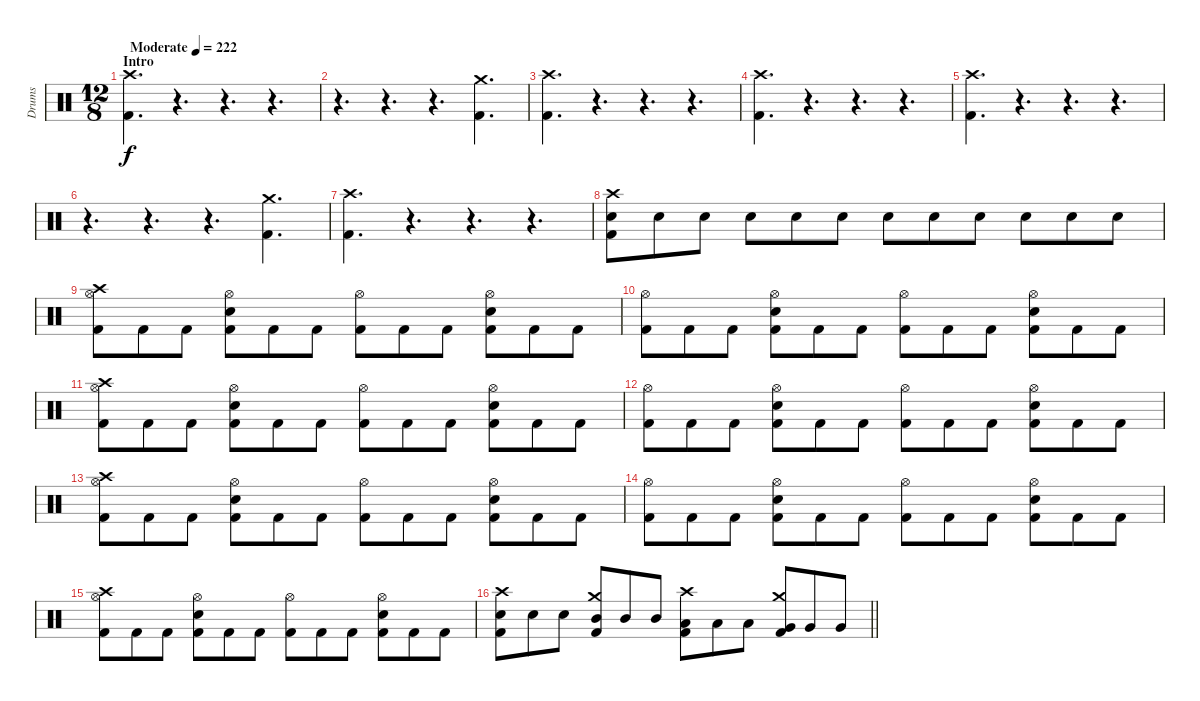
\track ("Drums" "Drums") {instrument percussion}
\staff {score}
\articulation defaults
\ts (12 8)
\section ("" "Intro")
\tempo (222 "Moderate")
\clef neutral
\ks c
("Crash high (hit)" "Kick (hit) 2").4{d dy f} r.4{d} r.4{d} r.4{d} |
r.4{d} r.4{d} r.4{d} ("Crash medium (hit)" "Kick (hit) 2").4{d} |
("Crash high (hit)" "Kick (hit) 2").4{d} r.4{d} r.4{d} r.4{d} |
("Crash high (hit)" "Kick (hit) 2").4{d} r.4{d} r.4{d} r.4{d} |
("Crash high (hit)" "Kick (hit) 2").4{d} r.4{d} r.4{d} r.4{d} |
r.4{d} r.4{d} r.4{d} ("Crash medium (hit)" "Kick (hit) 2").4{d} |
("Crash high (hit)" "Kick (hit) 2").4{d} r.4{d} r.4{d} r.4{d} |
("Crash high (hit)" "Snare (hit) 2" "Kick (hit) 2").8 "Snare (hit) 2".8 "Snare (hit) 2".8 "Snare (hit) 2".8 "Snare (hit) 2".8 "Snare (hit) 2".8 "Snare (hit) 2".8 "Snare (hit) 2".8 "Snare (hit) 2".8 "Snare (hit) 2".8 "Snare (hit) 2".8 "Snare (hit) 2".8 |
("Crash high (hit)" "Hi-Hat (open)" "Kick (hit) 2").8 "Kick (hit) 2".8 "Kick (hit) 2".8 ("Hi-Hat (open)" "Snare (hit) 2" "Kick (hit) 2").8 "Kick (hit) 2".8 "Kick (hit) 2".8 ("Hi-Hat (open)" "Kick (hit) 2").8 "Kick (hit) 2".8 "Kick (hit) 2".8 ("Hi-Hat (open)" "Snare (hit) 2" "Kick (hit) 2").8 "Kick (hit) 2".8 "Kick (hit) 2".8 |
("Hi-Hat (open)" "Kick (hit) 2").8 "Kick (hit) 2".8 "Kick (hit) 2".8 ("Hi-Hat (open)" "Snare (hit) 2" "Kick (hit) 2").8 "Kick (hit) 2".8 "Kick (hit) 2".8 ("Hi-Hat (open)" "Kick (hit) 2").8 "Kick (hit) 2".8 "Kick (hit) 2".8 ("Hi-Hat (open)" "Snare (hit) 2" "Kick (hit) 2").8 "Kick (hit) 2".8 "Kick (hit) 2".8 |
("Crash high (hit)" "Hi-Hat (open)" "Kick (hit) 2").8 "Kick (hit) 2".8 "Kick (hit) 2".8 ("Hi-Hat (open)" "Snare (hit) 2" "Kick (hit) 2").8 "Kick (hit) 2".8 "Kick (hit) 2".8 ("Hi-Hat (open)" "Kick (hit) 2").8 "Kick (hit) 2".8 "Kick (hit) 2".8 ("Hi-Hat (open)" "Snare (hit) 2" "Kick (hit) 2").8 "Kick (hit) 2".8 "Kick (hit) 2".8 |
("Hi-Hat (open)" "Kick (hit) 2").8 "Kick (hit) 2".8 "Kick (hit) 2".8 ("Hi-Hat (open)" "Snare (hit) 2" "Kick (hit) 2").8 "Kick (hit) 2".8 "Kick (hit) 2".8 ("Hi-Hat (open)" "Kick (hit) 2").8 "Kick (hit) 2".8 "Kick (hit) 2".8 ("Hi-Hat (open)" "Snare (hit) 2" "Kick (hit) 2").8 "Kick (hit) 2".8 "Kick (hit) 2".8 |
("Crash high (hit)" "Hi-Hat (open)" "Kick (hit) 2").8 "Kick (hit) 2".8 "Kick (hit) 2".8 ("Hi-Hat (open)" "Snare (hit) 2" "Kick (hit) 2").8 "Kick (hit) 2".8 "Kick (hit) 2".8 ("Hi-Hat (open)" "Kick (hit) 2").8 "Kick (hit) 2".8 "Kick (hit) 2".8 ("Hi-Hat (open)" "Snare (hit) 2" "Kick (hit) 2").8 "Kick (hit) 2".8 "Kick (hit) 2".8 |
("Hi-Hat (open)" "Kick (hit) 2").8 "Kick (hit) 2".8 "Kick (hit) 2".8 ("Hi-Hat (open)" "Snare (hit) 2" "Kick (hit) 2").8 "Kick (hit) 2".8 "Kick (hit) 2".8 ("Hi-Hat (open)" "Kick (hit) 2").8 "Kick (hit) 2".8 "Kick (hit) 2".8 ("Hi-Hat (open)" "Snare (hit) 2" "Kick (hit) 2").8 "Kick (hit) 2".8 "Kick (hit) 2".8 |
("Crash high (hit)" "Hi-Hat (open)" "Kick (hit) 2").8 "Kick (hit) 2".8 "Kick (hit) 2".8 ("Hi-Hat (open)" "Snare (hit) 2" "Kick (hit) 2").8 "Kick (hit) 2".8 "Kick (hit) 2".8 ("Hi-Hat (open)" "Kick (hit) 2").8 "Kick (hit) 2".8 "Kick (hit) 2".8 ("Hi-Hat (open)" "Snare (hit) 2" "Kick (hit) 2").8 "Kick (hit) 2".8 "Kick (hit) 2".8 |
\barLineRight lightlight
("Crash high (hit)" "Snare (hit) 2" "Kick (hit) 2").8 "Snare (hit) 2".8 "Snare (hit) 2".8 ("Crash medium (hit)" "Mid Tom (hit)" "Kick (hit) 2").8 "Mid Tom (hit)".8 "Mid Tom (hit)".8 ("Crash high (hit)" "Low Tom (hit)" "Kick (hit) 2").8 "Low Tom (hit)".8 "Low Tom (hit)".8 ("Crash medium (hit)" "Very Low Tom (hit)" "Kick (hit) 2").8 "Very Low Tom (hit)".8 "Very Low Tom (hit)".8
